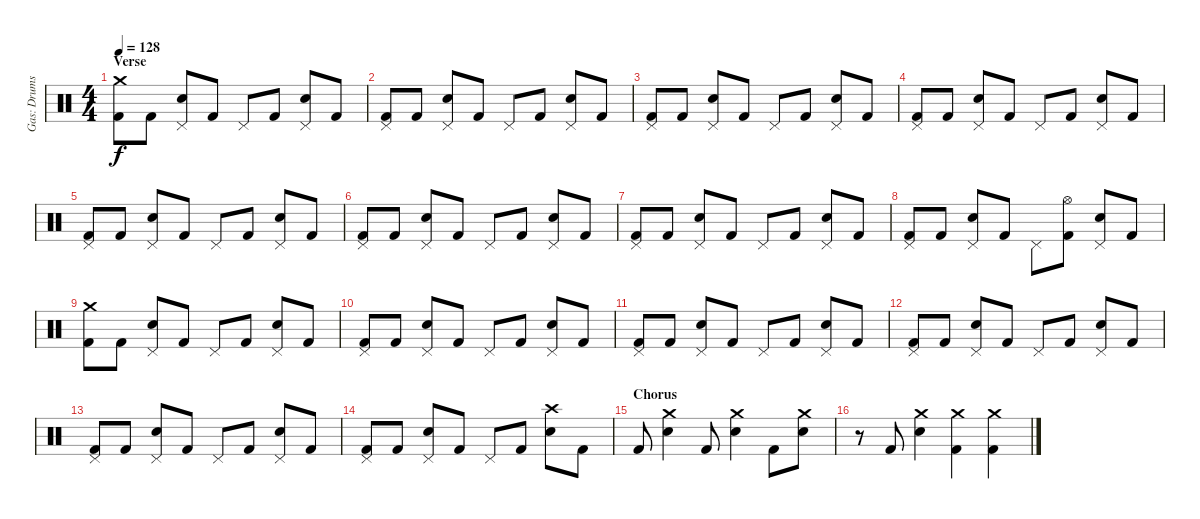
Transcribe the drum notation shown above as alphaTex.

\track ("Gas: Drums" "Gas: Drums") {instrument percussion}
\staff {score}
\articulation defaults
\ts (4 4)
\section ("" "Verse")
\tempo 128
\clef neutral
\ks c
("Crash medium (hit)" "Kick (hit) 2").8{dy f} "Kick (hit) 2".8 ("Pedal Hi-Hat (hit)" "Electric Snare (hit)").8 "Kick (hit) 2".8 "Pedal Hi-Hat (hit)".8 "Kick (hit) 2".8 ("Pedal Hi-Hat (hit)" "Electric Snare (hit)").8 "Kick (hit) 2".8 |
("Pedal Hi-Hat (hit)" "Kick (hit) 2").8 "Kick (hit) 2".8 ("Pedal Hi-Hat (hit)" "Electric Snare (hit)").8 "Kick (hit) 2".8 "Pedal Hi-Hat (hit)".8 "Kick (hit) 2".8 ("Pedal Hi-Hat (hit)" "Electric Snare (hit)").8 "Kick (hit) 2".8 |
("Pedal Hi-Hat (hit)" "Kick (hit) 2").8 "Kick (hit) 2".8 ("Pedal Hi-Hat (hit)" "Electric Snare (hit)").8 "Kick (hit) 2".8 "Pedal Hi-Hat (hit)".8 "Kick (hit) 2".8 ("Pedal Hi-Hat (hit)" "Electric Snare (hit)").8 "Kick (hit) 2".8 |
("Pedal Hi-Hat (hit)" "Kick (hit) 2").8 "Kick (hit) 2".8 ("Pedal Hi-Hat (hit)" "Electric Snare (hit)").8 "Kick (hit) 2".8 "Pedal Hi-Hat (hit)".8 "Kick (hit) 2".8 ("Pedal Hi-Hat (hit)" "Electric Snare (hit)").8 "Kick (hit) 2".8 |
("Pedal Hi-Hat (hit)" "Kick (hit) 2").8 "Kick (hit) 2".8 ("Pedal Hi-Hat (hit)" "Electric Snare (hit)").8 "Kick (hit) 2".8 "Pedal Hi-Hat (hit)".8 "Kick (hit) 2".8 ("Pedal Hi-Hat (hit)" "Electric Snare (hit)").8 "Kick (hit) 2".8 |
("Pedal Hi-Hat (hit)" "Kick (hit) 2").8 "Kick (hit) 2".8 ("Pedal Hi-Hat (hit)" "Electric Snare (hit)").8 "Kick (hit) 2".8 "Pedal Hi-Hat (hit)".8 "Kick (hit) 2".8 ("Pedal Hi-Hat (hit)" "Electric Snare (hit)").8 "Kick (hit) 2".8 |
("Pedal Hi-Hat (hit)" "Kick (hit) 2").8 "Kick (hit) 2".8 ("Pedal Hi-Hat (hit)" "Electric Snare (hit)").8 "Kick (hit) 2".8 "Pedal Hi-Hat (hit)".8 "Kick (hit) 2".8 ("Pedal Hi-Hat (hit)" "Electric Snare (hit)").8 "Kick (hit) 2".8 |
("Pedal Hi-Hat (hit)" "Kick (hit) 2").8 "Kick (hit) 2".8 ("Pedal Hi-Hat (hit)" "Electric Snare (hit)").8 "Kick (hit) 2".8 "Pedal Hi-Hat (hit)".8 ("Hi-Hat (open)" "Kick (hit) 2").8 ("Pedal Hi-Hat (hit)" "Electric Snare (hit)").8 "Kick (hit) 2".8 |
("Crash medium (hit)" "Kick (hit) 2").8 "Kick (hit) 2".8 ("Pedal Hi-Hat (hit)" "Electric Snare (hit)").8 "Kick (hit) 2".8 "Pedal Hi-Hat (hit)".8 "Kick (hit) 2".8 ("Pedal Hi-Hat (hit)" "Electric Snare (hit)").8 "Kick (hit) 2".8 |
("Pedal Hi-Hat (hit)" "Kick (hit) 2").8 "Kick (hit) 2".8 ("Pedal Hi-Hat (hit)" "Electric Snare (hit)").8 "Kick (hit) 2".8 "Pedal Hi-Hat (hit)".8 "Kick (hit) 2".8 ("Pedal Hi-Hat (hit)" "Electric Snare (hit)").8 "Kick (hit) 2".8 |
("Pedal Hi-Hat (hit)" "Kick (hit) 2").8 "Kick (hit) 2".8 ("Pedal Hi-Hat (hit)" "Electric Snare (hit)").8 "Kick (hit) 2".8 "Pedal Hi-Hat (hit)".8 "Kick (hit) 2".8 ("Pedal Hi-Hat (hit)" "Electric Snare (hit)").8 "Kick (hit) 2".8 |
("Pedal Hi-Hat (hit)" "Kick (hit) 2").8 "Kick (hit) 2".8 ("Pedal Hi-Hat (hit)" "Electric Snare (hit)").8 "Kick (hit) 2".8 "Pedal Hi-Hat (hit)".8 "Kick (hit) 2".8 ("Pedal Hi-Hat (hit)" "Electric Snare (hit)").8 "Kick (hit) 2".8 |
("Pedal Hi-Hat (hit)" "Kick (hit) 2").8 "Kick (hit) 2".8 ("Pedal Hi-Hat (hit)" "Electric Snare (hit)").8 "Kick (hit) 2".8 "Pedal Hi-Hat (hit)".8 "Kick (hit) 2".8 ("Pedal Hi-Hat (hit)" "Electric Snare (hit)").8 "Kick (hit) 2".8 |
("Pedal Hi-Hat (hit)" "Kick (hit) 2").8 "Kick (hit) 2".8 ("Pedal Hi-Hat (hit)" "Electric Snare (hit)").8 "Kick (hit) 2".8 "Pedal Hi-Hat (hit)".8 "Kick (hit) 2".8 ("Crash high (hit)" "Electric Snare (hit)").8 "Kick (hit) 2".8 |
\section ("" "Chorus")
"Kick (hit) 2".8 ("Crash medium (hit)" "Electric Snare (hit)").4 "Kick (hit) 2".8 ("Crash medium (hit)" "Electric Snare (hit)").4 "Kick (hit) 2".8 ("Crash medium (hit)" "Electric Snare (hit)").8 |
r.8 "Kick (hit) 2".8 ("Crash medium (hit)" "Electric Snare (hit)").4 ("Crash medium (hit)" "Kick (hit) 2").4 ("Crash medium (hit)" "Kick (hit) 2").4
